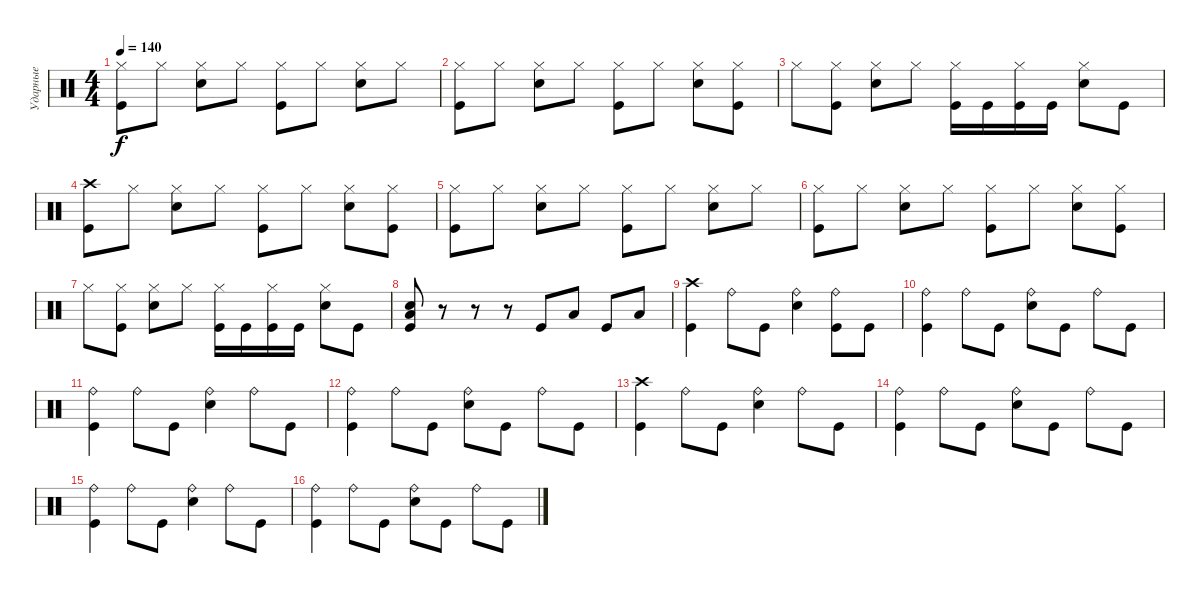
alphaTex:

\track ("Ударные" "Ударные") {instrument percussion}
\staff {score}
\articulation defaults
\ts (4 4)
\tempo 140
\clef neutral
\ks c
("Hi-Hat (closed)" "Kick (hit)").8{dy f} "Hi-Hat (closed)".8 ("Hi-Hat (closed)" "Electric Snare (hit)").8 "Hi-Hat (closed)".8 ("Hi-Hat (closed)" "Kick (hit)").8 "Hi-Hat (closed)".8 ("Hi-Hat (closed)" "Electric Snare (hit)").8 "Hi-Hat (closed)".8 |
("Hi-Hat (closed)" "Kick (hit)").8 "Hi-Hat (closed)".8 ("Hi-Hat (closed)" "Electric Snare (hit)").8 "Hi-Hat (closed)".8 ("Hi-Hat (closed)" "Kick (hit)").8 "Hi-Hat (closed)".8 ("Hi-Hat (closed)" "Electric Snare (hit)").8 ("Hi-Hat (closed)" "Kick (hit)").8 |
"Hi-Hat (closed)".8 ("Hi-Hat (closed)" "Kick (hit)").8 ("Hi-Hat (closed)" "Electric Snare (hit)").8 "Hi-Hat (closed)".8 ("Hi-Hat (closed)" "Kick (hit)").16 "Kick (hit)".16 ("Hi-Hat (closed)" "Kick (hit)").16 "Kick (hit)".16 ("Hi-Hat (closed)" "Electric Snare (hit)").8 "Kick (hit)".8 |
("Crash high (hit)" "Kick (hit)").8 "Hi-Hat (closed)".8 ("Hi-Hat (closed)" "Electric Snare (hit)").8 "Hi-Hat (closed)".8 ("Hi-Hat (closed)" "Kick (hit)").8 "Hi-Hat (closed)".8 ("Hi-Hat (closed)" "Electric Snare (hit)").8 ("Hi-Hat (closed)" "Kick (hit)").8 |
("Hi-Hat (closed)" "Kick (hit)").8 "Hi-Hat (closed)".8 ("Hi-Hat (closed)" "Electric Snare (hit)").8 "Hi-Hat (closed)".8 ("Hi-Hat (closed)" "Kick (hit)").8 "Hi-Hat (closed)".8 ("Hi-Hat (closed)" "Electric Snare (hit)").8 "Hi-Hat (closed)".8 |
("Hi-Hat (closed)" "Kick (hit)").8 "Hi-Hat (closed)".8 ("Hi-Hat (closed)" "Electric Snare (hit)").8 "Hi-Hat (closed)".8 ("Hi-Hat (closed)" "Kick (hit)").8 "Hi-Hat (closed)".8 ("Hi-Hat (closed)" "Electric Snare (hit)").8 ("Hi-Hat (closed)" "Kick (hit)").8 |
"Hi-Hat (closed)".8 ("Hi-Hat (closed)" "Kick (hit)").8 ("Hi-Hat (closed)" "Electric Snare (hit)").8 "Hi-Hat (closed)".8 ("Hi-Hat (closed)" "Kick (hit)").16 "Kick (hit)".16 ("Hi-Hat (closed)" "Kick (hit)").16 "Kick (hit)".16 ("Hi-Hat (closed)" "Electric Snare (hit)").8 "Kick (hit)".8 |
("Electric Snare (hit)" "Low Tom (hit)" "Kick (hit)").8 r.8 r.8 r.8 "Kick (hit)".8 "Low Tom (hit)".8 "Kick (hit)".8 "Low Tom (hit)".8 |
("Crash high (hit)" "Kick (hit)").4 "Ride (bell)".8 "Kick (hit)".8 ("Ride (bell)" "Electric Snare (hit)").4 ("Ride (bell)" "Kick (hit)").8 "Kick (hit)".8 |
("Ride (bell)" "Kick (hit)").4 "Ride (bell)".8 "Kick (hit)".8 ("Ride (bell)" "Electric Snare (hit)").8 "Kick (hit)".8 "Ride (bell)".8 "Kick (hit)".8 |
("Ride (bell)" "Kick (hit)").4 "Ride (bell)".8 "Kick (hit)".8 ("Ride (bell)" "Electric Snare (hit)").4 "Ride (bell)".8 "Kick (hit)".8 |
("Ride (bell)" "Kick (hit)").4 "Ride (bell)".8 "Kick (hit)".8 ("Ride (bell)" "Electric Snare (hit)").8 "Kick (hit)".8 "Ride (bell)".8 "Kick (hit)".8 |
("Crash high (hit)" "Kick (hit)").4 "Ride (bell)".8 "Kick (hit)".8 ("Ride (bell)" "Electric Snare (hit)").4 "Ride (bell)".8 "Kick (hit)".8 |
("Ride (bell)" "Kick (hit)").4 "Ride (bell)".8 "Kick (hit)".8 ("Ride (bell)" "Electric Snare (hit)").8 "Kick (hit)".8 "Ride (bell)".8 "Kick (hit)".8 |
("Ride (bell)" "Kick (hit)").4 "Ride (bell)".8 "Kick (hit)".8 ("Ride (bell)" "Electric Snare (hit)").4 "Ride (bell)".8 "Kick (hit)".8 |
("Ride (bell)" "Kick (hit)").4 "Ride (bell)".8 "Kick (hit)".8 ("Ride (bell)" "Electric Snare (hit)").8 "Kick (hit)".8 "Ride (bell)".8 "Kick (hit)".8
